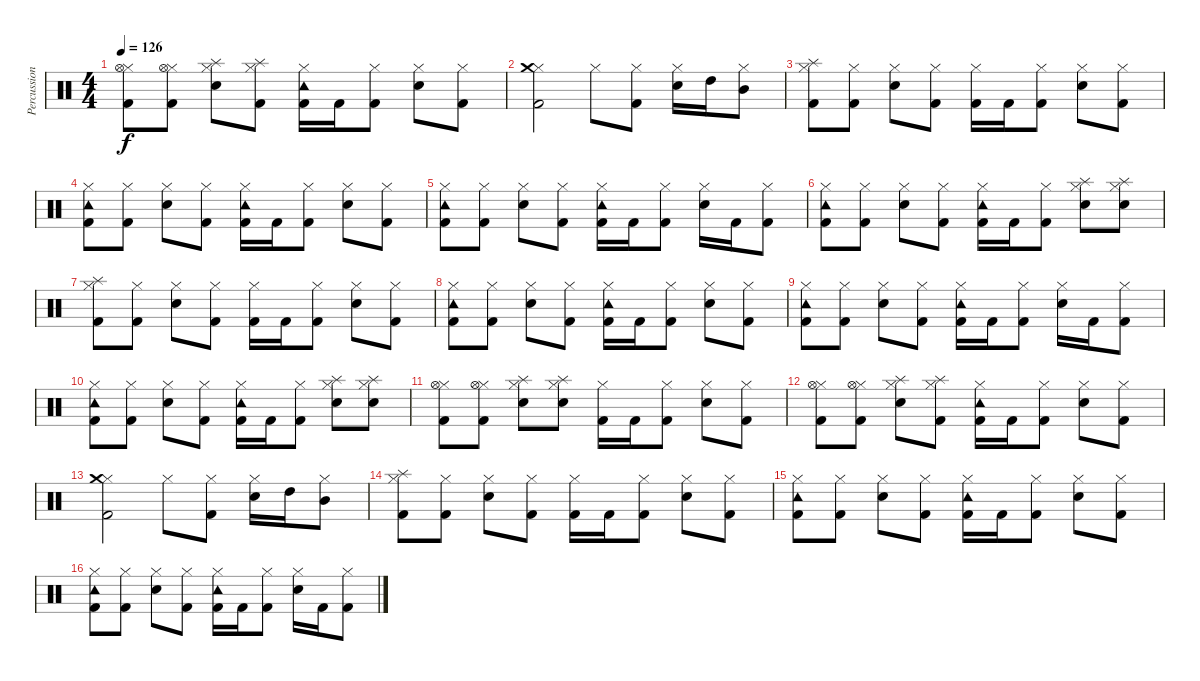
\track ("Percussion" "Percussion") {instrument percussion}
\staff {score}
\articulation defaults
\ts (4 4)
\tempo 126
\clef neutral
\ks c
("Hi-Hat (closed)" "Kick (hit) 2" "Hi-Hat (open)").8{dy f} ("Hi-Hat (closed)" "Kick (hit) 2" "Hi-Hat (open)").8 ("Hi-Hat (closed)" "Electric Snare (hit)" "Splash (hit)").8 ("Hi-Hat (closed)" "Kick (hit) 2" "Splash (hit)").8 ("Hi-Hat (closed)" "Kick (hit) 2" "Tambourine (hit)").16 "Kick (hit) 2".16 ("Hi-Hat (closed)" "Kick (hit) 2").8 ("Hi-Hat (closed)" "Electric Snare (hit)").8 ("Hi-Hat (closed)" "Kick (hit) 2").8 |
("Hi-Hat (closed)" "Kick (hit) 2" "Crash medium (hit)").2 "Hi-Hat (closed)".8 ("Hi-Hat (closed)" "Kick (hit) 2").8 ("Hi-Hat (closed)" "Electric Snare (hit)").16 "High Tom (hit)".16 ("Hi-Hat (closed)" "Mid Tom (hit)").8 |
("Hi-Hat (closed)" "Kick (hit) 2" "Splash (hit)").8 ("Hi-Hat (closed)" "Kick (hit) 2").8 ("Hi-Hat (closed)" "Electric Snare (hit)").8 ("Hi-Hat (closed)" "Kick (hit) 2").8 ("Hi-Hat (closed)" "Kick (hit) 2").16 "Kick (hit) 2".16 ("Hi-Hat (closed)" "Kick (hit) 2").8 ("Hi-Hat (closed)" "Electric Snare (hit)").8 ("Hi-Hat (closed)" "Kick (hit) 2").8 |
("Hi-Hat (closed)" "Kick (hit) 2" "Tambourine (hit)").8 ("Hi-Hat (closed)" "Kick (hit) 2").8 ("Hi-Hat (closed)" "Electric Snare (hit)").8 ("Hi-Hat (closed)" "Kick (hit) 2").8 ("Hi-Hat (closed)" "Kick (hit) 2" "Tambourine (hit)").16 "Kick (hit) 2".16 ("Hi-Hat (closed)" "Kick (hit) 2").8 ("Hi-Hat (closed)" "Electric Snare (hit)").8 ("Hi-Hat (closed)" "Kick (hit) 2").8 |
("Hi-Hat (closed)" "Kick (hit) 2" "Tambourine (hit)").8 ("Hi-Hat (closed)" "Kick (hit) 2").8 ("Hi-Hat (closed)" "Electric Snare (hit)").8 ("Hi-Hat (closed)" "Kick (hit) 2").8 ("Hi-Hat (closed)" "Kick (hit) 2" "Tambourine (hit)").16 "Kick (hit) 2".16 ("Hi-Hat (closed)" "Kick (hit) 2").8 ("Hi-Hat (closed)" "Electric Snare (hit)").16 "Kick (hit) 2".16 ("Hi-Hat (closed)" "Kick (hit) 2").8 |
("Hi-Hat (closed)" "Kick (hit) 2" "Tambourine (hit)").8 ("Hi-Hat (closed)" "Kick (hit) 2").8 ("Hi-Hat (closed)" "Electric Snare (hit)").8 ("Hi-Hat (closed)" "Kick (hit) 2").8 ("Hi-Hat (closed)" "Kick (hit) 2" "Tambourine (hit)").16 "Kick (hit) 2".16 ("Hi-Hat (closed)" "Kick (hit) 2").8 ("Hi-Hat (closed)" "Electric Snare (hit)" "Splash (hit)").8 ("Hi-Hat (closed)" "Electric Snare (hit)" "Splash (hit)").8 |
("Hi-Hat (closed)" "Kick (hit) 2" "Splash (hit)").8 ("Hi-Hat (closed)" "Kick (hit) 2").8 ("Hi-Hat (closed)" "Electric Snare (hit)").8 ("Hi-Hat (closed)" "Kick (hit) 2").8 ("Hi-Hat (closed)" "Kick (hit) 2").16 "Kick (hit) 2".16 ("Hi-Hat (closed)" "Kick (hit) 2").8 ("Hi-Hat (closed)" "Electric Snare (hit)").8 ("Hi-Hat (closed)" "Kick (hit) 2").8 |
("Hi-Hat (closed)" "Kick (hit) 2" "Tambourine (hit)").8 ("Hi-Hat (closed)" "Kick (hit) 2").8 ("Hi-Hat (closed)" "Electric Snare (hit)").8 ("Hi-Hat (closed)" "Kick (hit) 2").8 ("Hi-Hat (closed)" "Kick (hit) 2" "Tambourine (hit)").16 "Kick (hit) 2".16 ("Hi-Hat (closed)" "Kick (hit) 2").8 ("Hi-Hat (closed)" "Electric Snare (hit)").8 ("Hi-Hat (closed)" "Kick (hit) 2").8 |
("Hi-Hat (closed)" "Kick (hit) 2" "Tambourine (hit)").8 ("Hi-Hat (closed)" "Kick (hit) 2").8 ("Hi-Hat (closed)" "Electric Snare (hit)").8 ("Hi-Hat (closed)" "Kick (hit) 2").8 ("Hi-Hat (closed)" "Kick (hit) 2" "Tambourine (hit)").16 "Kick (hit) 2".16 ("Hi-Hat (closed)" "Kick (hit) 2").8 ("Hi-Hat (closed)" "Electric Snare (hit)").16 "Kick (hit) 2".16 ("Hi-Hat (closed)" "Kick (hit) 2").8 |
("Hi-Hat (closed)" "Kick (hit) 2" "Tambourine (hit)").8 ("Hi-Hat (closed)" "Kick (hit) 2").8 ("Hi-Hat (closed)" "Electric Snare (hit)").8 ("Hi-Hat (closed)" "Kick (hit) 2").8 ("Hi-Hat (closed)" "Kick (hit) 2" "Tambourine (hit)").16 "Kick (hit) 2".16 ("Hi-Hat (closed)" "Kick (hit) 2").8 ("Hi-Hat (closed)" "Electric Snare (hit)" "Splash (hit)").8 ("Hi-Hat (closed)" "Electric Snare (hit)" "Splash (hit)").8 |
("Hi-Hat (closed)" "Kick (hit) 2" "Hi-Hat (open)").8 ("Hi-Hat (closed)" "Kick (hit) 2" "Hi-Hat (open)").8 ("Hi-Hat (closed)" "Electric Snare (hit)" "Splash (hit)").8 ("Hi-Hat (closed)" "Electric Snare (hit)" "Splash (hit)").8 ("Hi-Hat (closed)" "Kick (hit) 2").16 "Kick (hit) 2".16 ("Hi-Hat (closed)" "Kick (hit) 2").8 ("Hi-Hat (closed)" "Electric Snare (hit)").8 ("Hi-Hat (closed)" "Kick (hit) 2").8 |
("Hi-Hat (closed)" "Kick (hit) 2" "Hi-Hat (open)").8 ("Hi-Hat (closed)" "Kick (hit) 2" "Hi-Hat (open)").8 ("Hi-Hat (closed)" "Electric Snare (hit)" "Splash (hit)").8 ("Hi-Hat (closed)" "Kick (hit) 2" "Splash (hit)").8 ("Hi-Hat (closed)" "Kick (hit) 2" "Tambourine (hit)").16 "Kick (hit) 2".16 ("Hi-Hat (closed)" "Kick (hit) 2").8 ("Hi-Hat (closed)" "Electric Snare (hit)").8 ("Hi-Hat (closed)" "Kick (hit) 2").8 |
("Hi-Hat (closed)" "Kick (hit) 2" "Crash medium (hit)").2 "Hi-Hat (closed)".8 ("Hi-Hat (closed)" "Kick (hit) 2").8 ("Hi-Hat (closed)" "Electric Snare (hit)").16 "High Tom (hit)".16 ("Hi-Hat (closed)" "Mid Tom (hit)").8 |
("Hi-Hat (closed)" "Kick (hit) 2" "Splash (hit)").8 ("Hi-Hat (closed)" "Kick (hit) 2").8 ("Hi-Hat (closed)" "Electric Snare (hit)").8 ("Hi-Hat (closed)" "Kick (hit) 2").8 ("Hi-Hat (closed)" "Kick (hit) 2").16 "Kick (hit) 2".16 ("Hi-Hat (closed)" "Kick (hit) 2").8 ("Hi-Hat (closed)" "Electric Snare (hit)").8 ("Hi-Hat (closed)" "Kick (hit) 2").8 |
("Hi-Hat (closed)" "Kick (hit) 2" "Tambourine (hit)").8 ("Hi-Hat (closed)" "Kick (hit) 2").8 ("Hi-Hat (closed)" "Electric Snare (hit)").8 ("Hi-Hat (closed)" "Kick (hit) 2").8 ("Hi-Hat (closed)" "Kick (hit) 2" "Tambourine (hit)").16 "Kick (hit) 2".16 ("Hi-Hat (closed)" "Kick (hit) 2").8 ("Hi-Hat (closed)" "Electric Snare (hit)").8 ("Hi-Hat (closed)" "Kick (hit) 2").8 |
("Hi-Hat (closed)" "Kick (hit) 2" "Tambourine (hit)").8 ("Hi-Hat (closed)" "Kick (hit) 2").8 ("Hi-Hat (closed)" "Electric Snare (hit)").8 ("Hi-Hat (closed)" "Kick (hit) 2").8 ("Hi-Hat (closed)" "Kick (hit) 2" "Tambourine (hit)").16 "Kick (hit) 2".16 ("Hi-Hat (closed)" "Kick (hit) 2").8 ("Hi-Hat (closed)" "Electric Snare (hit)").16 "Kick (hit) 2".16 ("Hi-Hat (closed)" "Kick (hit) 2").8
